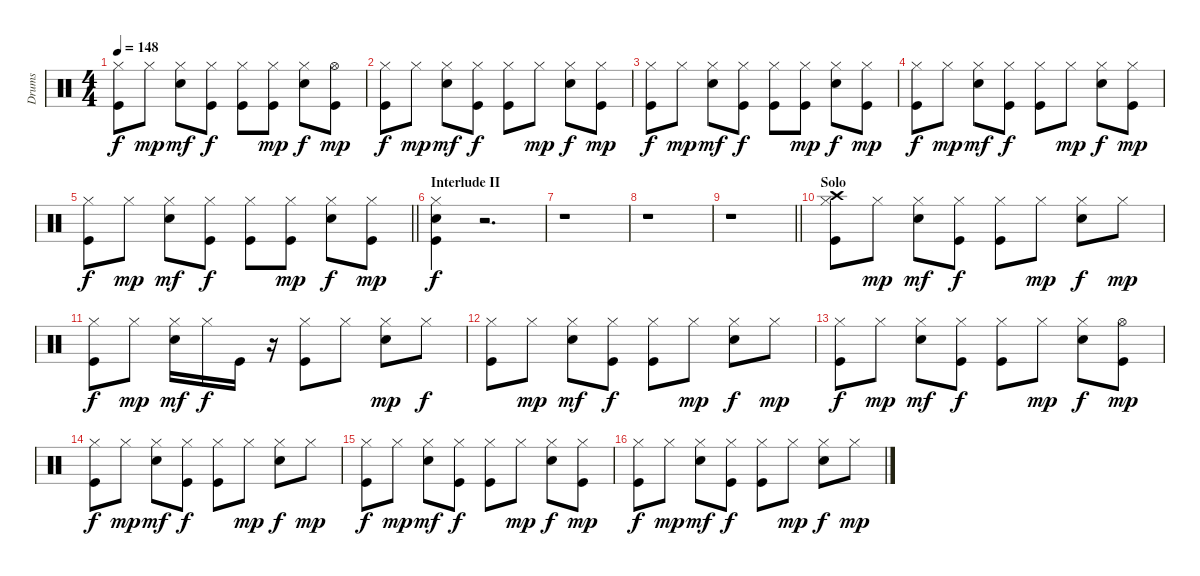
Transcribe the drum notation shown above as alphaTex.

\track ("Drums   " "Drums   ") {instrument percussion}
\staff {score}
\articulation defaults
\ts (4 4)
\tempo 148
\clef neutral
\ks c
("Hi-Hat (closed)" "Kick (hit)").8{dy f} "Hi-Hat (closed)".8{dy mp} ("Hi-Hat (closed)" "Snare (hit) 2").8{dy mf} ("Hi-Hat (closed)" "Kick (hit)").8{dy f} ("Hi-Hat (closed)" "Kick (hit)").8 ("Hi-Hat (closed)" "Kick (hit)").8{dy mp} ("Hi-Hat (closed)" "Snare (hit) 2").8{dy f} ("Hi-Hat (open)" "Kick (hit)").8{dy mp} |
("Hi-Hat (closed)" "Kick (hit)").8{dy f} "Hi-Hat (closed)".8{dy mp} ("Hi-Hat (closed)" "Snare (hit) 2").8{dy mf} ("Hi-Hat (closed)" "Kick (hit)").8{dy f} ("Hi-Hat (closed)" "Kick (hit)").8 "Hi-Hat (closed)".8{dy mp} ("Hi-Hat (closed)" "Snare (hit) 2").8{dy f} ("Hi-Hat (closed)" "Kick (hit)").8{dy mp} |
("Hi-Hat (closed)" "Kick (hit)").8{dy f} "Hi-Hat (closed)".8{dy mp} ("Hi-Hat (closed)" "Snare (hit) 2").8{dy mf} ("Hi-Hat (closed)" "Kick (hit)").8{dy f} ("Hi-Hat (closed)" "Kick (hit)").8 ("Hi-Hat (closed)" "Kick (hit)").8{dy mp} ("Hi-Hat (closed)" "Snare (hit) 2").8{dy f} ("Hi-Hat (closed)" "Kick (hit)").8{dy mp} |
("Hi-Hat (closed)" "Kick (hit)").8{dy f} "Hi-Hat (closed)".8{dy mp} ("Hi-Hat (closed)" "Snare (hit) 2").8{dy mf} ("Hi-Hat (closed)" "Kick (hit)").8{dy f} ("Hi-Hat (closed)" "Kick (hit)").8 "Hi-Hat (closed)".8{dy mp} ("Hi-Hat (closed)" "Snare (hit) 2").8{dy f} ("Hi-Hat (closed)" "Kick (hit)").8{dy mp} |
\barLineRight lightlight
("Hi-Hat (closed)" "Kick (hit)").8{dy f} "Hi-Hat (closed)".8{dy mp} ("Hi-Hat (closed)" "Snare (hit) 2").8{dy mf} ("Hi-Hat (closed)" "Kick (hit)").8{dy f} ("Hi-Hat (closed)" "Kick (hit)").8 ("Hi-Hat (closed)" "Kick (hit)").8{dy mp} ("Hi-Hat (closed)" "Snare (hit) 2").8{dy f} ("Hi-Hat (closed)" "Kick (hit)").8{dy mp} |
\section ("" "Interlude II")
("Hi-Hat (closed)" "Snare (hit) 2" "Kick (hit)").4{dy f} r.2{d} |
r.1 |
r.1 |
\barLineRight lightlight
r.1 |
\section ("" "Solo")
("Hi-Hat (closed)" "Crash high (hit)" "Kick (hit)").8 "Hi-Hat (closed)".8{dy mp} ("Hi-Hat (closed)" "Snare (hit) 2").8{dy mf} ("Hi-Hat (closed)" "Kick (hit)").8{dy f} ("Hi-Hat (closed)" "Kick (hit)").8 "Hi-Hat (closed)".8{dy mp} ("Hi-Hat (closed)" "Snare (hit) 2").8{dy f} "Hi-Hat (closed)".8{dy mp} |
("Hi-Hat (closed)" "Kick (hit)").8{dy f} "Hi-Hat (closed)".8{dy mp} ("Hi-Hat (closed)" "Snare (hit) 2").16{dy mf} "Hi-Hat (closed)".16{dy f} "Kick (hit)".16 r.16 ("Hi-Hat (closed)" "Kick (hit)").8 "Hi-Hat (closed)".8 ("Hi-Hat (closed)" "Snare (hit) 2").8{dy mp} "Hi-Hat (closed)".8{dy f} |
("Hi-Hat (closed)" "Kick (hit)").8 "Hi-Hat (closed)".8{dy mp} ("Hi-Hat (closed)" "Snare (hit) 2").8{dy mf} ("Hi-Hat (closed)" "Kick (hit)").8{dy f} ("Hi-Hat (closed)" "Kick (hit)").8 "Hi-Hat (closed)".8{dy mp} ("Hi-Hat (closed)" "Snare (hit) 2").8{dy f} "Hi-Hat (closed)".8{dy mp} |
("Hi-Hat (closed)" "Kick (hit)").8{dy f} "Hi-Hat (closed)".8{dy mp} ("Hi-Hat (closed)" "Snare (hit) 2").8{dy mf} ("Hi-Hat (closed)" "Kick (hit)").8{dy f} ("Hi-Hat (closed)" "Kick (hit)").8 "Hi-Hat (closed)".8{dy mp} ("Hi-Hat (closed)" "Snare (hit) 2").8{dy f} ("Hi-Hat (open)" "Kick (hit)").8{dy mp} |
("Hi-Hat (closed)" "Kick (hit)").8{dy f} "Hi-Hat (closed)".8{dy mp} ("Hi-Hat (closed)" "Snare (hit) 2").8{dy mf} ("Hi-Hat (closed)" "Kick (hit)").8{dy f} ("Hi-Hat (closed)" "Kick (hit)").8 "Hi-Hat (closed)".8{dy mp} ("Hi-Hat (closed)" "Snare (hit) 2").8{dy f} "Hi-Hat (closed)".8{dy mp} |
("Hi-Hat (closed)" "Kick (hit)").8{dy f} "Hi-Hat (closed)".8{dy mp} ("Hi-Hat (closed)" "Snare (hit) 2").8{dy mf} ("Hi-Hat (closed)" "Kick (hit)").8{dy f} ("Hi-Hat (closed)" "Kick (hit)").8 "Hi-Hat (closed)".8{dy mp} ("Hi-Hat (closed)" "Snare (hit) 2").8{dy f} ("Hi-Hat (closed)" "Kick (hit)").8{dy mp} |
("Hi-Hat (closed)" "Kick (hit)").8{dy f} "Hi-Hat (closed)".8{dy mp} ("Hi-Hat (closed)" "Snare (hit) 2").8{dy mf} ("Hi-Hat (closed)" "Kick (hit)").8{dy f} ("Hi-Hat (closed)" "Kick (hit)").8 "Hi-Hat (closed)".8{dy mp} ("Hi-Hat (closed)" "Snare (hit) 2").8{dy f} "Hi-Hat (closed)".8{dy mp}
